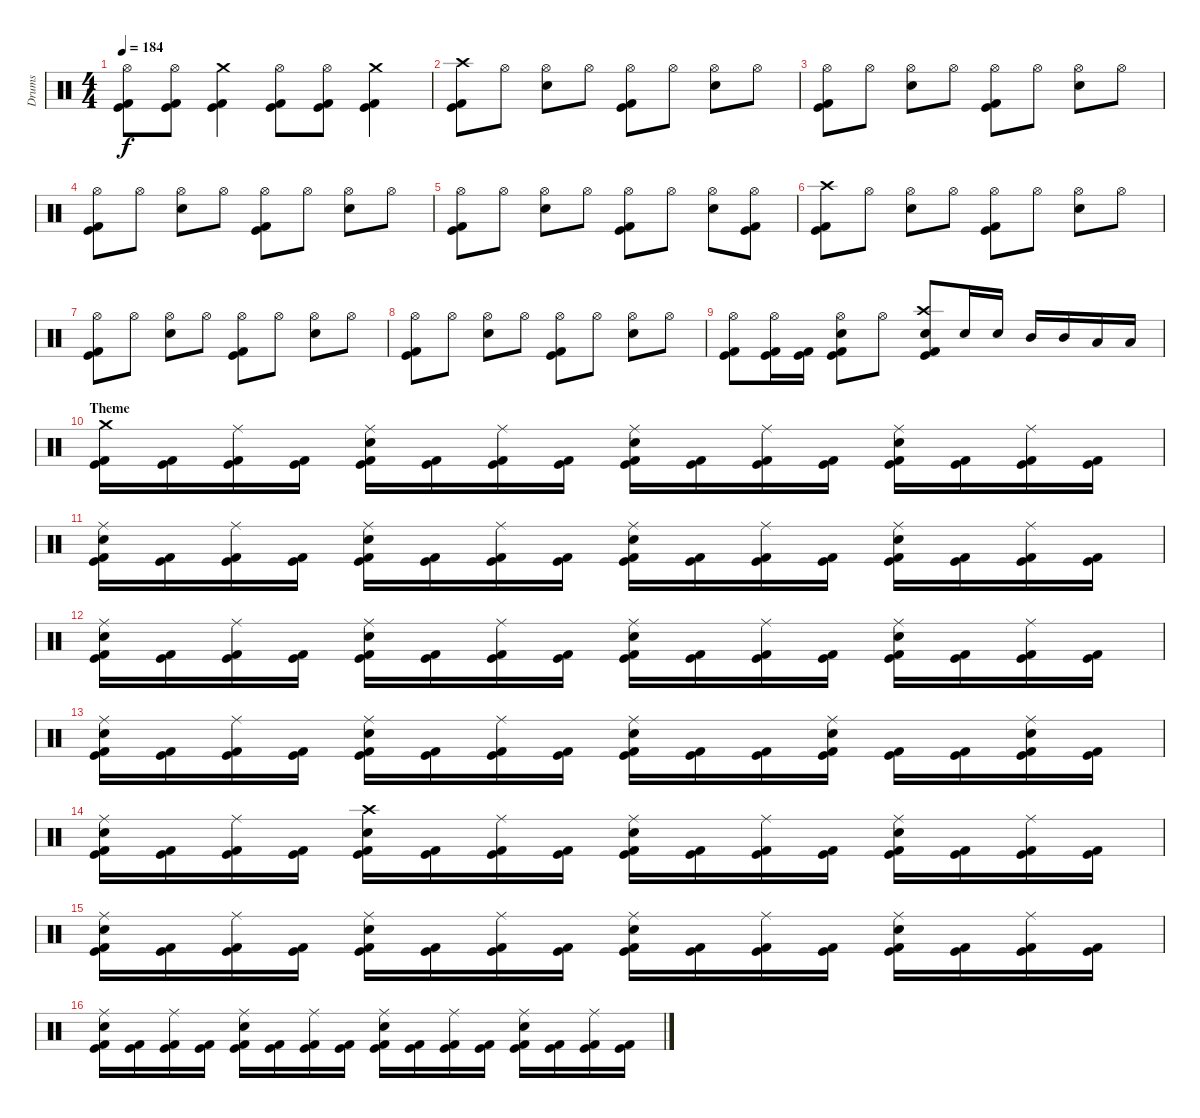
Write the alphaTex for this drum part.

\track ("Drums" "Drums") {instrument percussion}
\staff {score}
\articulation defaults
\ts (4 4)
\tempo 184
\clef neutral
\ks c
("Hi-Hat (open)" "Kick (hit)" "Kick (hit) 2").8{dy f} ("Hi-Hat (open)" "Kick (hit)" "Kick (hit) 2").8 ("Crash medium (hit)" "Kick (hit)" "Kick (hit) 2").4 ("Hi-Hat (open)" "Kick (hit)" "Kick (hit) 2").8 ("Hi-Hat (open)" "Kick (hit)" "Kick (hit) 2").8 ("Crash medium (hit)" "Kick (hit)" "Kick (hit) 2").4 |
("Crash high (hit)" "Kick (hit)" "Kick (hit) 2").8 "Hi-Hat (open)".8 ("Hi-Hat (open)" "Electric Snare (hit)").8 "Hi-Hat (open)".8 ("Hi-Hat (open)" "Kick (hit)" "Kick (hit) 2").8 "Hi-Hat (open)".8 ("Hi-Hat (open)" "Electric Snare (hit)").8 "Hi-Hat (open)".8 |
("Hi-Hat (open)" "Kick (hit)" "Kick (hit) 2").8 "Hi-Hat (open)".8 ("Hi-Hat (open)" "Electric Snare (hit)").8 "Hi-Hat (open)".8 ("Hi-Hat (open)" "Kick (hit)" "Kick (hit) 2").8 "Hi-Hat (open)".8 ("Hi-Hat (open)" "Electric Snare (hit)").8 "Hi-Hat (open)".8 |
("Hi-Hat (open)" "Kick (hit)" "Kick (hit) 2").8 "Hi-Hat (open)".8 ("Hi-Hat (open)" "Electric Snare (hit)").8 "Hi-Hat (open)".8 ("Hi-Hat (open)" "Kick (hit)" "Kick (hit) 2").8 "Hi-Hat (open)".8 ("Hi-Hat (open)" "Electric Snare (hit)").8 "Hi-Hat (open)".8 |
("Hi-Hat (open)" "Kick (hit)" "Kick (hit) 2").8 "Hi-Hat (open)".8 ("Hi-Hat (open)" "Electric Snare (hit)").8 "Hi-Hat (open)".8 ("Hi-Hat (open)" "Kick (hit)" "Kick (hit) 2").8 "Hi-Hat (open)".8 ("Hi-Hat (open)" "Electric Snare (hit)").8 ("Hi-Hat (open)" "Kick (hit)" "Kick (hit) 2").8 |
("Crash high (hit)" "Kick (hit)" "Kick (hit) 2").8 "Hi-Hat (open)".8 ("Hi-Hat (open)" "Electric Snare (hit)").8 "Hi-Hat (open)".8 ("Hi-Hat (open)" "Kick (hit)" "Kick (hit) 2").8 "Hi-Hat (open)".8 ("Hi-Hat (open)" "Electric Snare (hit)").8 "Hi-Hat (open)".8 |
("Hi-Hat (open)" "Kick (hit)" "Kick (hit) 2").8 "Hi-Hat (open)".8 ("Hi-Hat (open)" "Electric Snare (hit)").8 "Hi-Hat (open)".8 ("Hi-Hat (open)" "Kick (hit)" "Kick (hit) 2").8 "Hi-Hat (open)".8 ("Hi-Hat (open)" "Electric Snare (hit)").8 "Hi-Hat (open)".8 |
("Hi-Hat (open)" "Kick (hit)" "Kick (hit) 2").8 "Hi-Hat (open)".8 ("Hi-Hat (open)" "Electric Snare (hit)").8 "Hi-Hat (open)".8 ("Hi-Hat (open)" "Kick (hit)" "Kick (hit) 2").8 "Hi-Hat (open)".8 ("Hi-Hat (open)" "Electric Snare (hit)").8 "Hi-Hat (open)".8 |
("Hi-Hat (open)" "Kick (hit)" "Kick (hit) 2").8 ("Hi-Hat (open)" "Kick (hit)" "Kick (hit) 2").16 ("Kick (hit)" "Kick (hit) 2").16 ("Hi-Hat (open)" "Electric Snare (hit)" "Kick (hit)" "Kick (hit) 2").8 "Hi-Hat (open)".8 ("Crash high (hit)" "Electric Snare (hit)" "Kick (hit)" "Kick (hit) 2").8 "Electric Snare (hit)".16 "Electric Snare (hit)".16 "Mid Tom (hit)".16 "Mid Tom (hit)".16 "Low Tom (hit)".16 "Low Tom (hit)".16 |
\section ("" "Theme")
("Crash medium (hit)" "Kick (hit)" "Kick (hit) 2").16 ("Kick (hit)" "Kick (hit) 2").16 ("Ride (middle)" "Kick (hit)" "Kick (hit) 2").16 ("Kick (hit)" "Kick (hit) 2").16 ("Ride (middle)" "Electric Snare (hit)" "Kick (hit)" "Kick (hit) 2").16 ("Kick (hit)" "Kick (hit) 2").16 ("Ride (middle)" "Kick (hit)" "Kick (hit) 2").16 ("Kick (hit)" "Kick (hit) 2").16 ("Ride (middle)" "Electric Snare (hit)" "Kick (hit)" "Kick (hit) 2").16 ("Kick (hit)" "Kick (hit) 2").16 ("Ride (middle)" "Kick (hit)" "Kick (hit) 2").16 ("Kick (hit)" "Kick (hit) 2").16 ("Ride (middle)" "Electric Snare (hit)" "Kick (hit)" "Kick (hit) 2").16 ("Kick (hit)" "Kick (hit) 2").16 ("Ride (middle)" "Kick (hit)" "Kick (hit) 2").16 ("Kick (hit)" "Kick (hit) 2").16 |
("Ride (middle)" "Electric Snare (hit)" "Kick (hit)" "Kick (hit) 2").16 ("Kick (hit)" "Kick (hit) 2").16 ("Ride (middle)" "Kick (hit)" "Kick (hit) 2").16 ("Kick (hit)" "Kick (hit) 2").16 ("Ride (middle)" "Electric Snare (hit)" "Kick (hit)" "Kick (hit) 2").16 ("Kick (hit)" "Kick (hit) 2").16 ("Ride (middle)" "Kick (hit)" "Kick (hit) 2").16 ("Kick (hit)" "Kick (hit) 2").16 ("Ride (middle)" "Electric Snare (hit)" "Kick (hit)" "Kick (hit) 2").16 ("Kick (hit)" "Kick (hit) 2").16 ("Ride (middle)" "Kick (hit)" "Kick (hit) 2").16 ("Kick (hit)" "Kick (hit) 2").16 ("Ride (middle)" "Electric Snare (hit)" "Kick (hit)" "Kick (hit) 2").16 ("Kick (hit)" "Kick (hit) 2").16 ("Ride (middle)" "Kick (hit)" "Kick (hit) 2").16 ("Kick (hit)" "Kick (hit) 2").16 |
("Ride (middle)" "Electric Snare (hit)" "Kick (hit)" "Kick (hit) 2").16 ("Kick (hit)" "Kick (hit) 2").16 ("Ride (middle)" "Kick (hit)" "Kick (hit) 2").16 ("Kick (hit)" "Kick (hit) 2").16 ("Ride (middle)" "Electric Snare (hit)" "Kick (hit)" "Kick (hit) 2").16 ("Kick (hit)" "Kick (hit) 2").16 ("Ride (middle)" "Kick (hit)" "Kick (hit) 2").16 ("Kick (hit)" "Kick (hit) 2").16 ("Ride (middle)" "Electric Snare (hit)" "Kick (hit)" "Kick (hit) 2").16 ("Kick (hit)" "Kick (hit) 2").16 ("Ride (middle)" "Kick (hit)" "Kick (hit) 2").16 ("Kick (hit)" "Kick (hit) 2").16 ("Ride (middle)" "Electric Snare (hit)" "Kick (hit)" "Kick (hit) 2").16 ("Kick (hit)" "Kick (hit) 2").16 ("Ride (middle)" "Kick (hit)" "Kick (hit) 2").16 ("Kick (hit)" "Kick (hit) 2").16 |
("Ride (middle)" "Electric Snare (hit)" "Kick (hit)" "Kick (hit) 2").16 ("Kick (hit)" "Kick (hit) 2").16 ("Ride (middle)" "Kick (hit)" "Kick (hit) 2").16 ("Kick (hit)" "Kick (hit) 2").16 ("Ride (middle)" "Electric Snare (hit)" "Kick (hit)" "Kick (hit) 2").16 ("Kick (hit)" "Kick (hit) 2").16 ("Ride (middle)" "Kick (hit)" "Kick (hit) 2").16 ("Kick (hit)" "Kick (hit) 2").16 ("Ride (middle)" "Electric Snare (hit)" "Kick (hit)" "Kick (hit) 2").16 ("Kick (hit)" "Kick (hit) 2").16 ("Kick (hit)" "Kick (hit) 2").16 ("Ride (middle)" "Electric Snare (hit)" "Kick (hit)" "Kick (hit) 2").16 ("Kick (hit)" "Kick (hit) 2").16 ("Kick (hit)" "Kick (hit) 2").16 ("Ride (middle)" "Electric Snare (hit)" "Kick (hit)" "Kick (hit) 2").16 ("Kick (hit)" "Kick (hit) 2").16 |
("Ride (middle)" "Electric Snare (hit)" "Kick (hit)" "Kick (hit) 2").16 ("Kick (hit)" "Kick (hit) 2").16 ("Ride (middle)" "Kick (hit)" "Kick (hit) 2").16 ("Kick (hit)" "Kick (hit) 2").16 ("Crash high (hit)" "Electric Snare (hit)" "Kick (hit)" "Kick (hit) 2").16 ("Kick (hit)" "Kick (hit) 2").16 ("Ride (middle)" "Kick (hit)" "Kick (hit) 2").16 ("Kick (hit)" "Kick (hit) 2").16 ("Ride (middle)" "Electric Snare (hit)" "Kick (hit)" "Kick (hit) 2").16 ("Kick (hit)" "Kick (hit) 2").16 ("Ride (middle)" "Kick (hit)" "Kick (hit) 2").16 ("Kick (hit)" "Kick (hit) 2").16 ("Ride (middle)" "Electric Snare (hit)" "Kick (hit)" "Kick (hit) 2").16 ("Kick (hit)" "Kick (hit) 2").16 ("Ride (middle)" "Kick (hit)" "Kick (hit) 2").16 ("Kick (hit)" "Kick (hit) 2").16 |
("Ride (middle)" "Electric Snare (hit)" "Kick (hit)" "Kick (hit) 2").16 ("Kick (hit)" "Kick (hit) 2").16 ("Ride (middle)" "Kick (hit)" "Kick (hit) 2").16 ("Kick (hit)" "Kick (hit) 2").16 ("Ride (middle)" "Electric Snare (hit)" "Kick (hit)" "Kick (hit) 2").16 ("Kick (hit)" "Kick (hit) 2").16 ("Ride (middle)" "Kick (hit)" "Kick (hit) 2").16 ("Kick (hit)" "Kick (hit) 2").16 ("Ride (middle)" "Electric Snare (hit)" "Kick (hit)" "Kick (hit) 2").16 ("Kick (hit)" "Kick (hit) 2").16 ("Ride (middle)" "Kick (hit)" "Kick (hit) 2").16 ("Kick (hit)" "Kick (hit) 2").16 ("Ride (middle)" "Electric Snare (hit)" "Kick (hit)" "Kick (hit) 2").16 ("Kick (hit)" "Kick (hit) 2").16 ("Ride (middle)" "Kick (hit)" "Kick (hit) 2").16 ("Kick (hit)" "Kick (hit) 2").16 |
("Ride (middle)" "Electric Snare (hit)" "Kick (hit)" "Kick (hit) 2").16 ("Kick (hit)" "Kick (hit) 2").16 ("Ride (middle)" "Kick (hit)" "Kick (hit) 2").16 ("Kick (hit)" "Kick (hit) 2").16 ("Ride (middle)" "Electric Snare (hit)" "Kick (hit)" "Kick (hit) 2").16 ("Kick (hit)" "Kick (hit) 2").16 ("Ride (middle)" "Kick (hit)" "Kick (hit) 2").16 ("Kick (hit)" "Kick (hit) 2").16 ("Ride (middle)" "Electric Snare (hit)" "Kick (hit)" "Kick (hit) 2").16 ("Kick (hit)" "Kick (hit) 2").16 ("Ride (middle)" "Kick (hit)" "Kick (hit) 2").16 ("Kick (hit)" "Kick (hit) 2").16 ("Ride (middle)" "Electric Snare (hit)" "Kick (hit)" "Kick (hit) 2").16 ("Kick (hit)" "Kick (hit) 2").16 ("Ride (middle)" "Kick (hit)" "Kick (hit) 2").16 ("Kick (hit)" "Kick (hit) 2").16
